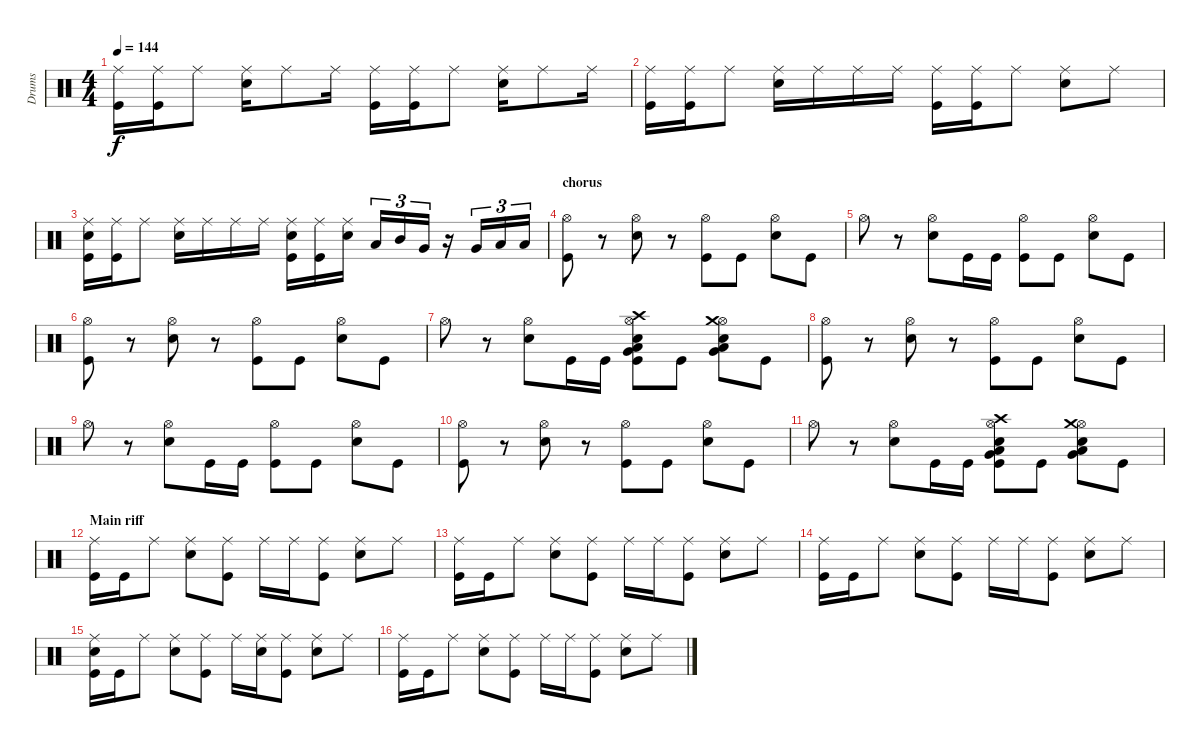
\track ("Drums" "Drums") {instrument percussion}
\staff {score}
\articulation defaults
\ts (4 4)
\tempo 144
\clef neutral
\ks c
("Ride (middle)" "Kick (hit)").16{dy f} ("Ride (middle)" "Kick (hit)").16 "Ride (middle)".8 ("Ride (middle)" "Snare (hit) 2").16 "Ride (middle)".8 "Ride (middle)".16 ("Ride (middle)" "Kick (hit)").16 ("Ride (middle)" "Kick (hit)").16 "Ride (middle)".8 ("Ride (middle)" "Snare (hit) 2").16 "Ride (middle)".8 "Ride (middle)".16 |
("Ride (middle)" "Kick (hit)").16 ("Ride (middle)" "Kick (hit)").16 "Ride (middle)".8 ("Ride (middle)" "Snare (hit) 2").16 "Ride (middle)".16 "Ride (middle)".16 "Ride (middle)".16 ("Ride (middle)" "Kick (hit)").16 ("Ride (middle)" "Kick (hit)").16 "Ride (middle)".8 ("Ride (middle)" "Snare (hit) 2").8 "Ride (middle)".8 |
("Ride (middle)" "Snare (hit) 2" "Kick (hit)").16 ("Ride (middle)" "Kick (hit)").16 "Ride (middle)".8 ("Ride (middle)" "Snare (hit) 2").16 "Ride (middle)".16 "Ride (middle)".16 "Ride (middle)".16 ("Ride (middle)" "Snare (hit) 2" "Kick (hit)").16 ("Ride (middle)" "Kick (hit)").16 ("Ride (middle)" "Snare (hit) 2").16 "Low Tom (hit)".16{tu (3 2)} "Mid Tom (hit)".16{tu (3 2)} "Very Low Tom (hit)".16{tu (3 2)} r.16 "Very Low Tom (hit)".16{tu (3 2)} "Low Tom (hit)".16{tu (3 2)} "Low Floor Tom (hit)".16{tu (3 2)} |
\section ("" "chorus")
("Hi-Hat (open)" "Kick (hit)").8 r.8 ("Hi-Hat (open)" "Snare (hit) 2").8 r.8 ("Hi-Hat (open)" "Kick (hit)").8 "Kick (hit)".8 ("Hi-Hat (open)" "Snare (hit) 2").8 "Kick (hit)".8 |
"Hi-Hat (open)".8 r.8 ("Hi-Hat (open)" "Snare (hit) 2").8 "Kick (hit)".16 "Kick (hit)".16 ("Hi-Hat (open)" "Kick (hit)").8 "Kick (hit)".8 ("Hi-Hat (open)" "Snare (hit) 2").8 "Kick (hit)".8 |
("Hi-Hat (open)" "Kick (hit)").8 r.8 ("Hi-Hat (open)" "Snare (hit) 2").8 r.8 ("Hi-Hat (open)" "Kick (hit)").8 "Kick (hit)".8 ("Hi-Hat (open)" "Snare (hit) 2").8 "Kick (hit)".8 |
"Hi-Hat (open)".8 r.8 ("Hi-Hat (open)" "Snare (hit) 2").8 "Kick (hit)".16 "Kick (hit)".16 ("Hi-Hat (open)" "Crash high (hit)" "Low Tom (hit)" "Snare (hit) 2" "Very Low Tom (hit)" "Kick (hit)").8 "Kick (hit)".8 ("Hi-Hat (open)" "Crash medium (hit)" "Low Tom (hit)" "Snare (hit) 2" "Very Low Tom (hit)").8 "Kick (hit)".8 |
("Hi-Hat (open)" "Kick (hit)").8 r.8 ("Hi-Hat (open)" "Snare (hit) 2").8 r.8 ("Hi-Hat (open)" "Kick (hit)").8 "Kick (hit)".8 ("Hi-Hat (open)" "Snare (hit) 2").8 "Kick (hit)".8 |
"Hi-Hat (open)".8 r.8 ("Hi-Hat (open)" "Snare (hit) 2").8 "Kick (hit)".16 "Kick (hit)".16 ("Hi-Hat (open)" "Kick (hit)").8 "Kick (hit)".8 ("Hi-Hat (open)" "Snare (hit) 2").8 "Kick (hit)".8 |
("Hi-Hat (open)" "Kick (hit)").8 r.8 ("Hi-Hat (open)" "Snare (hit) 2").8 r.8 ("Hi-Hat (open)" "Kick (hit)").8 "Kick (hit)".8 ("Hi-Hat (open)" "Snare (hit) 2").8 "Kick (hit)".8 |
"Hi-Hat (open)".8 r.8 ("Hi-Hat (open)" "Snare (hit) 2").8 "Kick (hit)".16 "Kick (hit)".16 ("Hi-Hat (open)" "Crash high (hit)" "Low Tom (hit)" "Snare (hit) 2" "Very Low Tom (hit)" "Kick (hit)").8 "Kick (hit)".8 ("Hi-Hat (open)" "Crash medium (hit)" "Low Tom (hit)" "Snare (hit) 2" "Very Low Tom (hit)").8 "Kick (hit)".8 |
\section ("" "Main riff")
("Ride (middle)" "Kick (hit)").16 "Kick (hit)".16 "Ride (middle)".8 ("Ride (middle)" "Snare (hit) 2").8 ("Ride (middle)" "Kick (hit)").8 "Ride (middle)".16 "Ride (middle)".16 ("Ride (middle)" "Kick (hit)").8 ("Ride (middle)" "Snare (hit) 2").8 "Ride (middle)".8 |
("Ride (middle)" "Kick (hit)").16 "Kick (hit)".16 "Ride (middle)".8 ("Ride (middle)" "Snare (hit) 2").8 ("Ride (middle)" "Kick (hit)").8 "Ride (middle)".16 "Ride (middle)".16 ("Ride (middle)" "Kick (hit)").8 ("Ride (middle)" "Snare (hit) 2").8 "Ride (middle)".8 |
("Ride (middle)" "Kick (hit)").16 "Kick (hit)".16 "Ride (middle)".8 ("Ride (middle)" "Snare (hit) 2").8 ("Ride (middle)" "Kick (hit)").8 "Ride (middle)".16 "Ride (middle)".16 ("Ride (middle)" "Kick (hit)").8 ("Ride (middle)" "Snare (hit) 2").8 "Ride (middle)".8 |
("Ride (middle)" "Snare (hit) 2" "Kick (hit)").16 "Kick (hit)".16 "Ride (middle)".8 ("Ride (middle)" "Snare (hit) 2").8 ("Ride (middle)" "Kick (hit)").8 "Ride (middle)".16 ("Ride (middle)" "Snare (hit) 2").16 ("Ride (middle)" "Kick (hit)").8 ("Ride (middle)" "Snare (hit) 2").8 "Ride (middle)".8 |
("Ride (middle)" "Kick (hit)").16 "Kick (hit)".16 "Ride (middle)".8 ("Ride (middle)" "Snare (hit) 2").8 ("Ride (middle)" "Kick (hit)").8 "Ride (middle)".16 "Ride (middle)".16 ("Ride (middle)" "Kick (hit)").8 ("Ride (middle)" "Snare (hit) 2").8 "Ride (middle)".8
